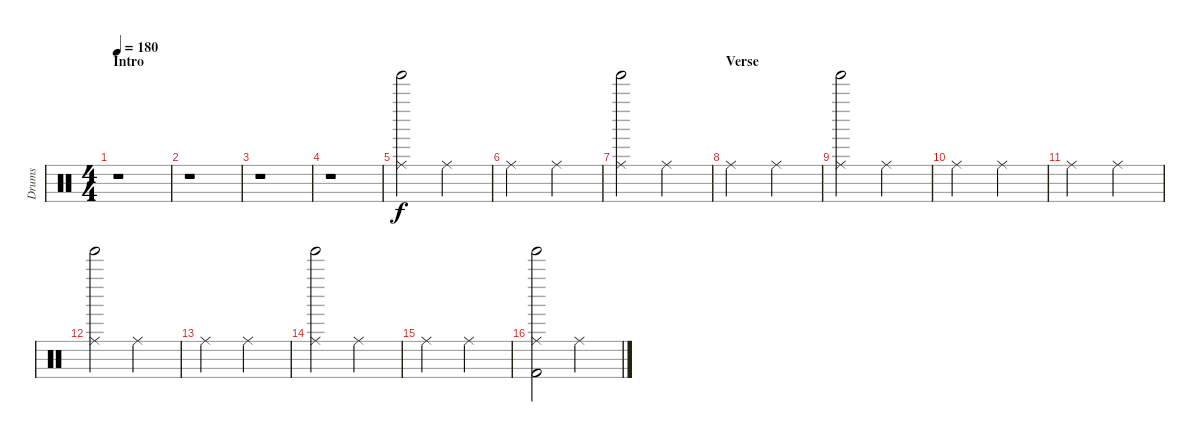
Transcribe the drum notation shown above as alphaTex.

\track ("Drums" "Drums") {instrument percussion}
\staff {score}
\articulation defaults
\ts (4 4)
\section ("" "Intro")
\tempo 180
\clef neutral
\ks c
r.1{dy f} |
r.1 |
r.1 |
r.1 |
("Ride (middle)" "Tinkle Bell (hit)").2 "Ride (middle)".2 |
"Ride (middle)".2 "Ride (middle)".2 |
("Ride (middle)" "Tinkle Bell (hit)").2 "Ride (middle)".2 |
\section ("" "Verse")
"Ride (middle)".2 "Ride (middle)".2 |
("Ride (middle)" "Tinkle Bell (hit)").2 "Ride (middle)".2 |
"Ride (middle)".2 "Ride (middle)".2 |
"Ride (middle)".2 "Ride (middle)".2 |
("Ride (middle)" "Tinkle Bell (hit)").2 "Ride (middle)".2 |
"Ride (middle)".2 "Ride (middle)".2 |
("Ride (middle)" "Tinkle Bell (hit)").2 "Ride (middle)".2 |
"Ride (middle)".2 "Ride (middle)".2 |
("Ride (middle)" "Kick (hit) 2" "Tinkle Bell (hit)").2 "Ride (middle)".2
